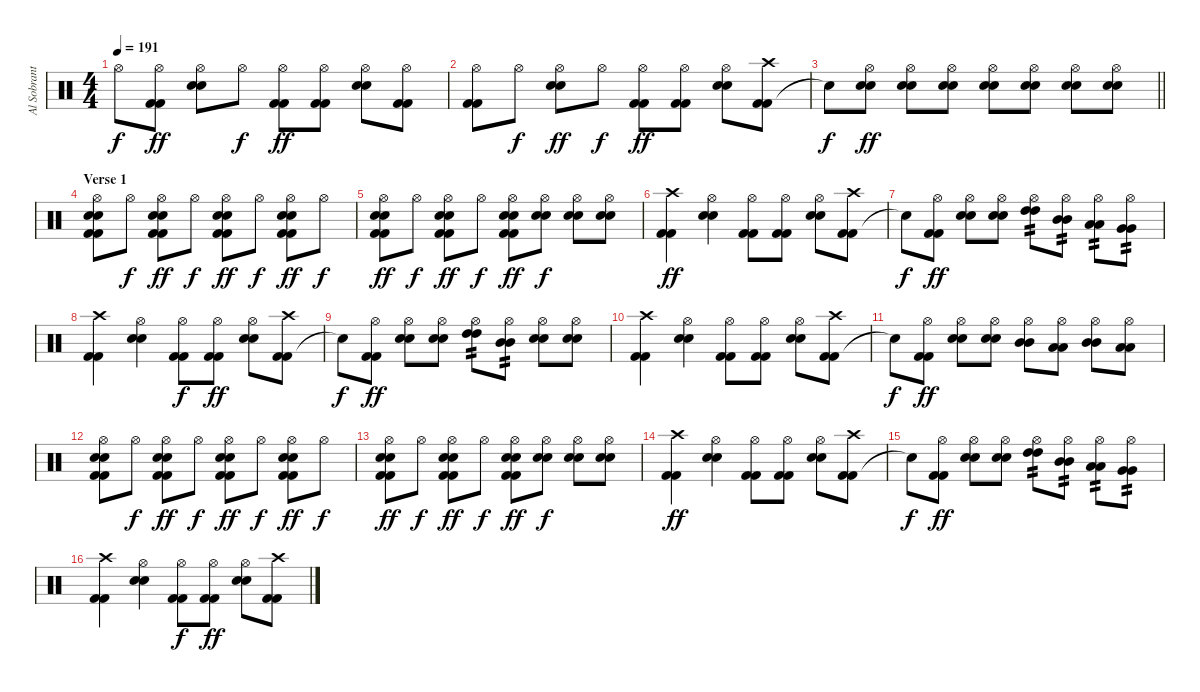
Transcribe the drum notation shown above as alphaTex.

\track ("Al Sobrante (Drums)" "Al Sobrant") {instrument percussion}
\staff {score}
\articulation defaults
\ts (4 4)
\tempo 191
\clef neutral
\ks c "Hi-Hat (open)".8{dy f}
("Kick (hit) 2" "Kick (hit) 2" "Hi-Hat (open)").8{dy ff} ("Electric Snare (hit)" "Electric Snare (hit)" "Hi-Hat (open)").8 "Hi-Hat (open)".8{dy f} ("Kick (hit) 2" "Kick (hit) 2" "Hi-Hat (open)").8{dy ff} ("Kick (hit) 2" "Kick (hit) 2" "Hi-Hat (open)").8 ("Electric Snare (hit)" "Electric Snare (hit)" "Hi-Hat (open)").8 ("Kick (hit) 2" "Kick (hit) 2" "Hi-Hat (open)").8 |
("Kick (hit) 2" "Kick (hit) 2" "Hi-Hat (open)").8 "Hi-Hat (open)".8{dy f} ("Electric Snare (hit)" "Electric Snare (hit)" "Hi-Hat (open)").8{dy ff} "Hi-Hat (open)".8{dy f} ("Kick (hit) 2" "Kick (hit) 2" "Hi-Hat (open)").8{dy ff} ("Kick (hit) 2" "Kick (hit) 2" "Hi-Hat (open)").8 ("Electric Snare (hit)" "Electric Snare (hit)" "Hi-Hat (open)").8 ("Kick (hit) 2" "Kick (hit) 2" "Crash high (hit)").8 |
\barLineRight lightlight "Snare (hit)"{t}.8{dy f}
("Electric Snare (hit)" "Electric Snare (hit)" "Hi-Hat (open)").8{dy ff} ("Electric Snare (hit)" "Electric Snare (hit)" "Hi-Hat (open)").8 ("Electric Snare (hit)" "Electric Snare (hit)" "Hi-Hat (open)").8 ("Electric Snare (hit)" "Electric Snare (hit)" "Hi-Hat (open)").8 ("Electric Snare (hit)" "Electric Snare (hit)" "Hi-Hat (open)").8 ("Electric Snare (hit)" "Electric Snare (hit)" "Hi-Hat (open)").8 ("Electric Snare (hit)" "Electric Snare (hit)" "Hi-Hat (open)").8 |
\section ("" "Verse 1")
("Kick (hit) 2" "Kick (hit) 2" "Electric Snare (hit)" "Electric Snare (hit)" "Hi-Hat (open)").8 "Hi-Hat (open)".8{dy f} ("Kick (hit) 2" "Kick (hit) 2" "Electric Snare (hit)" "Electric Snare (hit)" "Hi-Hat (open)").8{dy ff} "Hi-Hat (open)".8{dy f} ("Kick (hit) 2" "Kick (hit) 2" "Electric Snare (hit)" "Electric Snare (hit)" "Hi-Hat (open)").8{dy ff} "Hi-Hat (open)".8{dy f} ("Kick (hit) 2" "Kick (hit) 2" "Electric Snare (hit)" "Electric Snare (hit)" "Hi-Hat (open)").8{dy ff} "Hi-Hat (open)".8{dy f} |
("Kick (hit) 2" "Kick (hit) 2" "Electric Snare (hit)" "Electric Snare (hit)" "Hi-Hat (open)").8{dy ff} "Hi-Hat (open)".8{dy f} ("Kick (hit) 2" "Kick (hit) 2" "Electric Snare (hit)" "Electric Snare (hit)" "Hi-Hat (open)").8{dy ff} "Hi-Hat (open)".8{dy f} ("Kick (hit) 2" "Kick (hit) 2" "Electric Snare (hit)" "Electric Snare (hit)" "Hi-Hat (open)").8{dy ff} ("Electric Snare (hit)" "Electric Snare (hit)" "Hi-Hat (open)").8{dy f} ("Electric Snare (hit)" "Electric Snare (hit)" "Hi-Hat (open)").8 ("Electric Snare (hit)" "Electric Snare (hit)" "Hi-Hat (open)").8 |
("Kick (hit) 2" "Kick (hit) 2" "Crash high (hit)").4{dy ff} ("Electric Snare (hit)" "Electric Snare (hit)" "Hi-Hat (open)").4 ("Kick (hit) 2" "Kick (hit) 2" "Hi-Hat (open)").8 ("Kick (hit) 2" "Kick (hit) 2" "Hi-Hat (open)").8 ("Electric Snare (hit)" "Electric Snare (hit)" "Hi-Hat (open)").8 ("Kick (hit) 2" "Kick (hit) 2" "Crash high (hit)").8 |
"Snare (hit)"{t}.8{dy f} ("Kick (hit) 2" "Kick (hit) 2" "Hi-Hat (open)").8{dy ff} ("Electric Snare (hit)" "Electric Snare (hit)" "Hi-Hat (open)").8 ("Electric Snare (hit)" "Electric Snare (hit)" "Hi-Hat (open)").8 ("High Tom (hit)" "High Tom (hit)" "Hi-Hat (open)").8{tp 2} ("Mid Tom (hit)" "Mid Tom (hit)" "Hi-Hat (open)").8{tp 2} ("Low Tom (hit)" "Low Tom (hit)" "Hi-Hat (open)").8{tp 2} ("Very Low Tom (hit)" "Very Low Tom (hit)" "Hi-Hat (open)").8{tp 2} |
("Kick (hit) 2" "Kick (hit) 2" "Crash high (hit)").4 ("Electric Snare (hit)" "Electric Snare (hit)" "Hi-Hat (open)").4 ("Kick (hit) 2" "Kick (hit) 2" "Hi-Hat (open)").8{dy f} ("Kick (hit) 2" "Kick (hit) 2" "Hi-Hat (open)").8{dy ff} ("Electric Snare (hit)" "Electric Snare (hit)" "Hi-Hat (open)").8 ("Kick (hit) 2" "Kick (hit) 2" "Crash high (hit)").8 |
"Snare (hit)"{t}.8{dy f} ("Kick (hit) 2" "Kick (hit) 2" "Hi-Hat (open)").8{dy ff} ("Electric Snare (hit)" "Electric Snare (hit)" "Hi-Hat (open)").8 ("Electric Snare (hit)" "Electric Snare (hit)" "Hi-Hat (open)").8 ("High Tom (hit)" "High Tom (hit)" "Hi-Hat (open)").8{tp 2} ("Mid Tom (hit)" "Mid Tom (hit)" "Hi-Hat (open)").8{tp 2} ("Electric Snare (hit)" "Electric Snare (hit)" "Hi-Hat (open)").8 ("Electric Snare (hit)" "Electric Snare (hit)" "Hi-Hat (open)").8 |
("Kick (hit) 2" "Kick (hit) 2" "Crash high (hit)").4 ("Electric Snare (hit)" "Electric Snare (hit)" "Hi-Hat (open)").4 ("Kick (hit) 2" "Kick (hit) 2" "Hi-Hat (open)").8 ("Kick (hit) 2" "Kick (hit) 2" "Hi-Hat (open)").8 ("Electric Snare (hit)" "Electric Snare (hit)" "Hi-Hat (open)").8 ("Kick (hit) 2" "Kick (hit) 2" "Crash high (hit)").8 |
"Snare (hit)"{t}.8{dy f} ("Kick (hit) 2" "Kick (hit) 2" "Hi-Hat (open)").8{dy ff} ("Electric Snare (hit)" "Electric Snare (hit)" "Hi-Hat (open)").8 ("Electric Snare (hit)" "Electric Snare (hit)" "Hi-Hat (open)").8 ("Mid Tom (hit)" "Mid Tom (hit)" "Hi-Hat (open)").8 ("Low Tom (hit)" "Low Tom (hit)" "Hi-Hat (open)").8 ("Mid Tom (hit)" "Mid Tom (hit)" "Hi-Hat (open)").8 ("Low Tom (hit)" "Low Tom (hit)" "Hi-Hat (open)").8 |
("Kick (hit) 2" "Kick (hit) 2" "Electric Snare (hit)" "Electric Snare (hit)" "Hi-Hat (open)").8 "Hi-Hat (open)".8{dy f} ("Kick (hit) 2" "Kick (hit) 2" "Electric Snare (hit)" "Electric Snare (hit)" "Hi-Hat (open)").8{dy ff} "Hi-Hat (open)".8{dy f} ("Kick (hit) 2" "Kick (hit) 2" "Electric Snare (hit)" "Electric Snare (hit)" "Hi-Hat (open)").8{dy ff} "Hi-Hat (open)".8{dy f} ("Kick (hit) 2" "Kick (hit) 2" "Electric Snare (hit)" "Electric Snare (hit)" "Hi-Hat (open)").8{dy ff} "Hi-Hat (open)".8{dy f} |
("Kick (hit) 2" "Kick (hit) 2" "Electric Snare (hit)" "Electric Snare (hit)" "Hi-Hat (open)").8{dy ff} "Hi-Hat (open)".8{dy f} ("Kick (hit) 2" "Kick (hit) 2" "Electric Snare (hit)" "Electric Snare (hit)" "Hi-Hat (open)").8{dy ff} "Hi-Hat (open)".8{dy f} ("Kick (hit) 2" "Kick (hit) 2" "Electric Snare (hit)" "Electric Snare (hit)" "Hi-Hat (open)").8{dy ff} ("Electric Snare (hit)" "Electric Snare (hit)" "Hi-Hat (open)").8{dy f} ("Electric Snare (hit)" "Electric Snare (hit)" "Hi-Hat (open)").8 ("Electric Snare (hit)" "Electric Snare (hit)" "Hi-Hat (open)").8 |
("Kick (hit) 2" "Kick (hit) 2" "Crash high (hit)").4{dy ff} ("Electric Snare (hit)" "Electric Snare (hit)" "Hi-Hat (open)").4 ("Kick (hit) 2" "Kick (hit) 2" "Hi-Hat (open)").8 ("Kick (hit) 2" "Kick (hit) 2" "Hi-Hat (open)").8 ("Electric Snare (hit)" "Electric Snare (hit)" "Hi-Hat (open)").8 ("Kick (hit) 2" "Kick (hit) 2" "Crash high (hit)").8 |
"Snare (hit)"{t}.8{dy f} ("Kick (hit) 2" "Kick (hit) 2" "Hi-Hat (open)").8{dy ff} ("Electric Snare (hit)" "Electric Snare (hit)" "Hi-Hat (open)").8 ("Electric Snare (hit)" "Electric Snare (hit)" "Hi-Hat (open)").8 ("High Tom (hit)" "High Tom (hit)" "Hi-Hat (open)").8{tp 2} ("Mid Tom (hit)" "Mid Tom (hit)" "Hi-Hat (open)").8{tp 2} ("Low Tom (hit)" "Low Tom (hit)" "Hi-Hat (open)").8{tp 2} ("Very Low Tom (hit)" "Very Low Tom (hit)" "Hi-Hat (open)").8{tp 2} |
("Kick (hit) 2" "Kick (hit) 2" "Crash high (hit)").4 ("Electric Snare (hit)" "Electric Snare (hit)" "Hi-Hat (open)").4 ("Kick (hit) 2" "Kick (hit) 2" "Hi-Hat (open)").8{dy f} ("Kick (hit) 2" "Kick (hit) 2" "Hi-Hat (open)").8{dy ff} ("Electric Snare (hit)" "Electric Snare (hit)" "Hi-Hat (open)").8 ("Kick (hit) 2" "Kick (hit) 2" "Crash high (hit)").8
